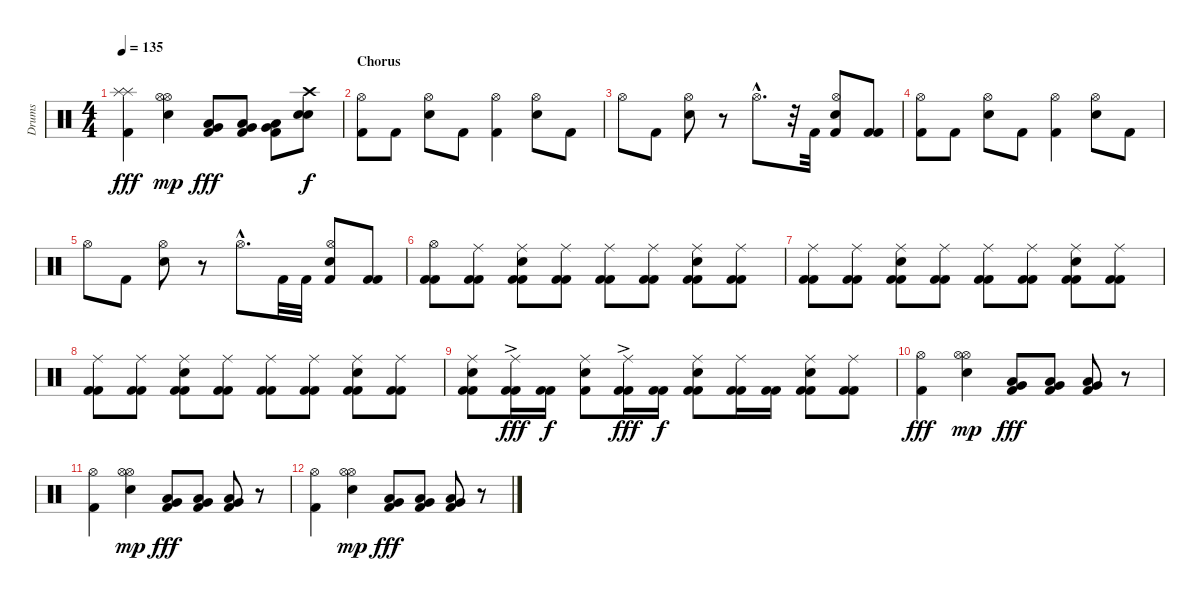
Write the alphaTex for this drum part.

\track ("Drums" "Drums") {instrument percussion}
\staff {score}
\articulation defaults
\ts (4 4)
\tempo 135
\clef neutral
\ks c
("Kick (hit) 2" "Splash (hit)" "Splash (hit)").4{dy fff} ("Snare (hit) 2" "Hi-Hat (open)" "Hi-Hat (open)").4{dy mp} ("Kick (hit) 2" "Very Low Tom (hit)" "Low Tom (hit)").8{dy fff} ("Kick (hit) 2" "Very Low Tom (hit)" "Low Tom (hit)").8 ("Kick (hit) 2" "Very Low Tom (hit)" "Low Tom (hit)").8 ("Crash high (hit)" "Electric Snare (hit)" "Electric Snare (hit)").8{dy f} |
\section ("" "Chorus")
("Hi-Hat (open)" "Kick (hit) 2").8 "Kick (hit) 2".8 ("Hi-Hat (open)" "Electric Snare (hit)").8 "Kick (hit) 2".8 ("Hi-Hat (open)" "Kick (hit) 2").4 ("Hi-Hat (open)" "Electric Snare (hit)").8 "Kick (hit) 2".8 |
"Hi-Hat (open)".8 "Kick (hit) 2".8 ("Hi-Hat (open)" "Electric Snare (hit)").8 r.8 "Hi-Hat (open)"{hac}.8{d} r.32 "Kick (hit) 2".32 ("Hi-Hat (open)" "Electric Snare (hit)" "Kick (hit) 2").8 ("Kick (hit) 2" "Kick (hit) 2").8 |
("Hi-Hat (open)" "Kick (hit) 2").8 "Kick (hit) 2".8 ("Hi-Hat (open)" "Electric Snare (hit)").8 "Kick (hit) 2".8 ("Hi-Hat (open)" "Kick (hit) 2").4 ("Hi-Hat (open)" "Electric Snare (hit)").8 "Kick (hit) 2".8 |
"Hi-Hat (open)".8 "Kick (hit) 2".8 ("Hi-Hat (open)" "Electric Snare (hit)").8 r.8 "Hi-Hat (open)"{hac}.8{d} "Kick (hit) 2".32 "Kick (hit) 2".32 ("Hi-Hat (open)" "Electric Snare (hit)" "Kick (hit) 2").8 ("Kick (hit) 2" "Kick (hit) 2").8 |
("Hi-Hat (open)" "Kick (hit) 2" "Kick (hit) 2").8 ("Ride (middle)" "Kick (hit) 2" "Kick (hit) 2").8 ("Ride (middle)" "Kick (hit) 2" "Electric Snare (hit)" "Kick (hit) 2").8 ("Ride (middle)" "Kick (hit) 2" "Kick (hit) 2").8 ("Ride (middle)" "Kick (hit) 2" "Kick (hit) 2").8 ("Ride (middle)" "Kick (hit) 2" "Kick (hit) 2").8 ("Ride (middle)" "Kick (hit) 2" "Electric Snare (hit)" "Kick (hit) 2").8 ("Ride (middle)" "Kick (hit) 2" "Kick (hit) 2").8 |
("Ride (middle)" "Kick (hit) 2" "Kick (hit) 2").8 ("Ride (middle)" "Kick (hit) 2" "Kick (hit) 2").8 ("Ride (middle)" "Kick (hit) 2" "Electric Snare (hit)" "Kick (hit) 2").8 ("Ride (middle)" "Kick (hit) 2" "Kick (hit) 2").8 ("Ride (middle)" "Kick (hit) 2" "Kick (hit) 2").8 ("Ride (middle)" "Kick (hit) 2" "Kick (hit) 2").8 ("Ride (middle)" "Kick (hit) 2" "Electric Snare (hit)" "Kick (hit) 2").8 ("Ride (middle)" "Kick (hit) 2" "Kick (hit) 2").8 |
("Ride (middle)" "Kick (hit) 2" "Kick (hit) 2").8 ("Ride (middle)" "Kick (hit) 2" "Kick (hit) 2").8 ("Ride (middle)" "Kick (hit) 2" "Electric Snare (hit)" "Kick (hit) 2").8 ("Ride (middle)" "Kick (hit) 2" "Kick (hit) 2").8 ("Ride (middle)" "Kick (hit) 2" "Kick (hit) 2").8 ("Ride (middle)" "Kick (hit) 2" "Kick (hit) 2").8 ("Ride (middle)" "Kick (hit) 2" "Electric Snare (hit)" "Kick (hit) 2").8 ("Ride (middle)" "Kick (hit) 2" "Kick (hit) 2").8 |
("Ride (middle)" "Electric Snare (hit)" "Kick (hit) 2" "Kick (hit) 2").8 ("Ride (middle)"{ac} "Kick (hit) 2" "Kick (hit) 2").16{dy fff} ("Kick (hit) 2" "Kick (hit) 2").16{dy f} ("Ride (middle)" "Electric Snare (hit)" "Kick (hit) 2").8 ("Ride (middle)"{ac} "Kick (hit) 2" "Kick (hit) 2").16{dy fff} ("Kick (hit) 2" "Kick (hit) 2").16{dy f} ("Ride (middle)" "Electric Snare (hit)" "Kick (hit) 2" "Kick (hit) 2").8 ("Ride (middle)" "Kick (hit) 2" "Kick (hit) 2").16 ("Kick (hit) 2" "Kick (hit) 2").16 ("Ride (middle)" "Kick (hit) 2" "Electric Snare (hit)" "Kick (hit) 2").8 ("Ride (middle)" "Kick (hit) 2" "Kick (hit) 2").8 |
("Kick (hit) 2" "Hi-Hat (open)").4{dy fff} ("Electric Snare (hit)" "Hi-Hat (open)" "Hi-Hat (open)").4{dy mp} ("Kick (hit) 2" "Very Low Tom (hit)" "Low Tom (hit)").8{dy fff} ("Kick (hit) 2" "Very Low Tom (hit)" "Low Tom (hit)").8 ("Kick (hit) 2" "Very Low Tom (hit)" "Low Tom (hit)").8 r.8 |
("Kick (hit) 2" "Hi-Hat (open)").4 ("Electric Snare (hit)" "Hi-Hat (open)" "Hi-Hat (open)").4{dy mp} ("Kick (hit) 2" "Very Low Tom (hit)" "Low Tom (hit)").8{dy fff} ("Kick (hit) 2" "Very Low Tom (hit)" "Low Tom (hit)").8 ("Kick (hit) 2" "Very Low Tom (hit)" "Low Tom (hit)").8 r.8 |
("Kick (hit) 2" "Hi-Hat (open)").4 ("Electric Snare (hit)" "Hi-Hat (open)" "Hi-Hat (open)").4{dy mp} ("Kick (hit) 2" "Very Low Tom (hit)" "Low Tom (hit)").8{dy fff} ("Kick (hit) 2" "Very Low Tom (hit)" "Low Tom (hit)").8 ("Kick (hit) 2" "Very Low Tom (hit)" "Low Tom (hit)").8 r.8
